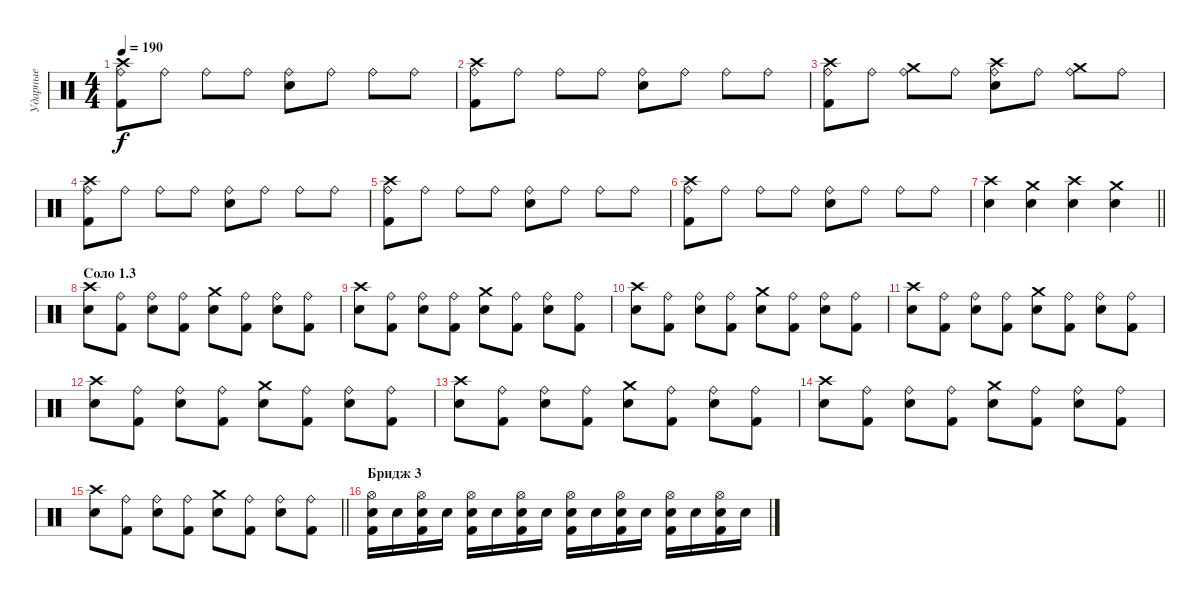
\track ("Ударные" "Ударные") {instrument percussion}
\staff {score}
\articulation defaults
\ts (4 4)
\tempo 190
\clef neutral
\ks c
("Crash high (hit)" "Ride (bell)" "Kick (hit) 2").8{dy f} "Ride (bell)".8 "Ride (bell)".8 "Ride (bell)".8 ("Ride (bell)" "Electric Snare (hit)").8 "Ride (bell)".8 "Ride (bell)".8 "Ride (bell)".8 |
("Crash high (hit)" "Ride (bell)" "Kick (hit) 2").8 "Ride (bell)".8 "Ride (bell)".8 "Ride (bell)".8 ("Ride (bell)" "Electric Snare (hit)").8 "Ride (bell)".8 "Ride (bell)".8 "Ride (bell)".8 |
("Crash high (hit)" "Ride (bell)" "Kick (hit) 2").8 "Ride (bell)".8 ("Crash medium (hit)" "Ride (bell)").8 "Ride (bell)".8 ("Crash high (hit)" "Ride (bell)" "Electric Snare (hit)").8 "Ride (bell)".8 ("Crash medium (hit)" "Ride (bell)").8 "Ride (bell)".8 |
("Crash high (hit)" "Ride (bell)" "Kick (hit) 2").8 "Ride (bell)".8 "Ride (bell)".8 "Ride (bell)".8 ("Ride (bell)" "Electric Snare (hit)").8 "Ride (bell)".8 "Ride (bell)".8 "Ride (bell)".8 |
("Crash high (hit)" "Ride (bell)" "Kick (hit) 2").8 "Ride (bell)".8 "Ride (bell)".8 "Ride (bell)".8 ("Ride (bell)" "Electric Snare (hit)").8 "Ride (bell)".8 "Ride (bell)".8 "Ride (bell)".8 |
("Crash high (hit)" "Ride (bell)" "Kick (hit) 2").8 "Ride (bell)".8 "Ride (bell)".8 "Ride (bell)".8 ("Ride (bell)" "Electric Snare (hit)").8 "Ride (bell)".8 "Ride (bell)".8 "Ride (bell)".8 |
\barLineRight lightlight
("Crash high (hit)" "Snare (hit) 2").4 ("Crash medium (hit)" "Snare (hit) 2").4 ("Crash high (hit)" "Snare (hit) 2").4 ("Crash medium (hit)" "Snare (hit) 2").4 |
\section ("" "Соло 1.3")
("Crash high (hit)" "Snare (hit) 2").8 ("Ride (bell)" "Kick (hit) 2").8 ("Ride (bell)" "Snare (hit) 2").8 ("Ride (bell)" "Kick (hit) 2").8 ("Crash medium (hit)" "Snare (hit) 2").8 ("Ride (bell)" "Kick (hit) 2").8 ("Ride (bell)" "Snare (hit) 2").8 ("Ride (bell)" "Kick (hit) 2").8 |
("Crash high (hit)" "Snare (hit) 2").8 ("Ride (bell)" "Kick (hit) 2").8 ("Ride (bell)" "Snare (hit) 2").8 ("Ride (bell)" "Kick (hit) 2").8 ("Crash medium (hit)" "Snare (hit) 2").8 ("Ride (bell)" "Kick (hit) 2").8 ("Ride (bell)" "Snare (hit) 2").8 ("Ride (bell)" "Kick (hit) 2").8 |
("Crash high (hit)" "Snare (hit) 2").8 ("Ride (bell)" "Kick (hit) 2").8 ("Ride (bell)" "Snare (hit) 2").8 ("Ride (bell)" "Kick (hit) 2").8 ("Crash medium (hit)" "Snare (hit) 2").8 ("Ride (bell)" "Kick (hit) 2").8 ("Ride (bell)" "Snare (hit) 2").8 ("Ride (bell)" "Kick (hit) 2").8 |
("Crash high (hit)" "Snare (hit) 2").8 ("Ride (bell)" "Kick (hit) 2").8 ("Ride (bell)" "Snare (hit) 2").8 ("Ride (bell)" "Kick (hit) 2").8 ("Crash medium (hit)" "Snare (hit) 2").8 ("Ride (bell)" "Kick (hit) 2").8 ("Ride (bell)" "Snare (hit) 2").8 ("Ride (bell)" "Kick (hit) 2").8 |
("Crash high (hit)" "Snare (hit) 2").8 ("Ride (bell)" "Kick (hit) 2").8 ("Ride (bell)" "Snare (hit) 2").8 ("Ride (bell)" "Kick (hit) 2").8 ("Crash medium (hit)" "Snare (hit) 2").8 ("Ride (bell)" "Kick (hit) 2").8 ("Ride (bell)" "Snare (hit) 2").8 ("Ride (bell)" "Kick (hit) 2").8 |
("Crash high (hit)" "Snare (hit) 2").8 ("Ride (bell)" "Kick (hit) 2").8 ("Ride (bell)" "Snare (hit) 2").8 ("Ride (bell)" "Kick (hit) 2").8 ("Crash medium (hit)" "Snare (hit) 2").8 ("Ride (bell)" "Kick (hit) 2").8 ("Ride (bell)" "Snare (hit) 2").8 ("Ride (bell)" "Kick (hit) 2").8 |
("Crash high (hit)" "Snare (hit) 2").8 ("Ride (bell)" "Kick (hit) 2").8 ("Ride (bell)" "Snare (hit) 2").8 ("Ride (bell)" "Kick (hit) 2").8 ("Crash medium (hit)" "Snare (hit) 2").8 ("Ride (bell)" "Kick (hit) 2").8 ("Ride (bell)" "Snare (hit) 2").8 ("Ride (bell)" "Kick (hit) 2").8 |
\barLineRight lightlight
("Crash high (hit)" "Snare (hit) 2").8 ("Ride (bell)" "Kick (hit) 2").8 ("Ride (bell)" "Snare (hit) 2").8 ("Ride (bell)" "Kick (hit) 2").8 ("Crash medium (hit)" "Snare (hit) 2").8 ("Ride (bell)" "Kick (hit) 2").8 ("Ride (bell)" "Snare (hit) 2").8 ("Ride (bell)" "Kick (hit) 2").8 |
\section ("" "Бридж 3")
("Electric Snare (hit)" "Hi-Hat (open)" "Kick (hit) 2").16 "Snare (hit) 2".16 ("Electric Snare (hit)" "Hi-Hat (open)" "Kick (hit) 2").16 "Snare (hit) 2".16 ("Electric Snare (hit)" "Hi-Hat (open)" "Kick (hit) 2").16 "Snare (hit) 2".16 ("Electric Snare (hit)" "Hi-Hat (open)" "Kick (hit) 2").16 "Snare (hit) 2".16 ("Electric Snare (hit)" "Hi-Hat (open)" "Kick (hit) 2").16 "Snare (hit) 2".16 ("Electric Snare (hit)" "Hi-Hat (open)" "Kick (hit) 2").16 "Snare (hit) 2".16 ("Electric Snare (hit)" "Hi-Hat (open)" "Kick (hit) 2").16 "Snare (hit) 2".16 ("Electric Snare (hit)" "Hi-Hat (open)" "Kick (hit) 2").16 "Snare (hit) 2".16
